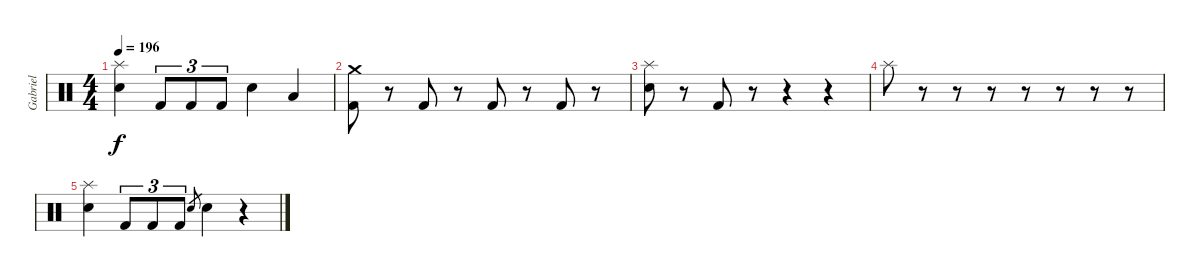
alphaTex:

\track ("Gabriel" "Gabriel") {instrument percussion}
\staff {score}
\articulation defaults
\ts (4 4)
\tempo 196
\clef neutral
\ks c
("Splash (hit)" "Electric Snare (hit)").4{dy f} "Kick (hit) 2".8{tu (3 2)} "Kick (hit) 2".8{tu (3 2)} "Kick (hit) 2".8{tu (3 2)} "Electric Snare (hit)".4 "Low Tom (hit)".4 |
("Crash medium (hit)" "Kick (hit) 2").8 r.8 "Kick (hit) 2".8 r.8 "Kick (hit) 2".8 r.8 "Kick (hit) 2".8 r.8 |
("Splash (hit)" "Electric Snare (hit)").8 r.8 "Kick (hit) 2".8 r.8 r.4 r.4 |
"Splash (hit)".8 r.8 r.8 r.8 r.8 r.8 r.8 r.8 |
("Splash (hit)" "Electric Snare (hit)").4 "Kick (hit) 2".8{tu (3 2)} "Kick (hit) 2".8{tu (3 2)} "Kick (hit) 2".8{tu (3 2)} "Electric Snare (hit)".8{gr} "Electric Snare (hit)".4 r.4
